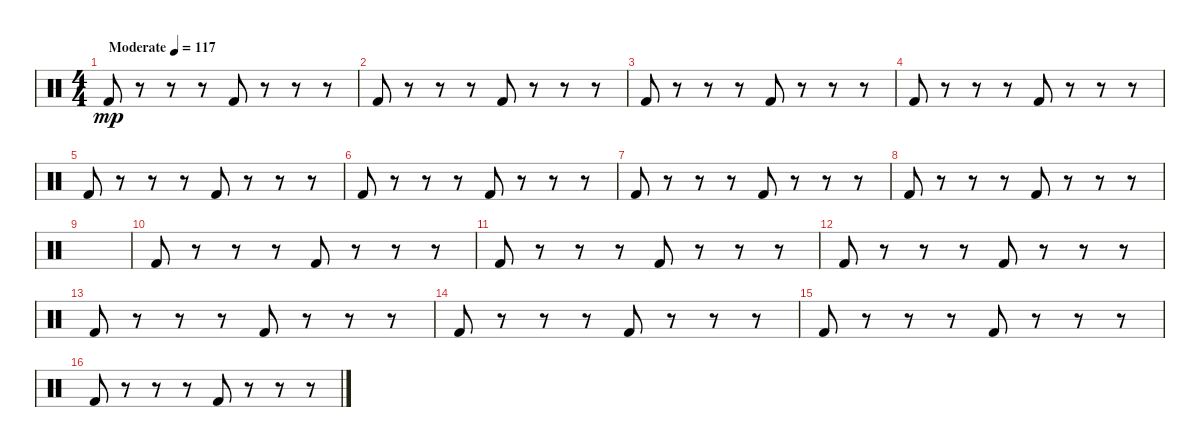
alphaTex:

\track "" {instrument percussion}
\staff {score}
\articulation defaults
\ts (4 4)
\tempo (117 "Moderate")
\clef neutral
\ks c "Kick (hit) 2".8{dy mp}
r.8 r.8 r.8 "Kick (hit) 2".8 r.8 r.8 r.8 |
"Kick (hit) 2".8 r.8 r.8 r.8 "Kick (hit) 2".8 r.8 r.8 r.8 |
"Kick (hit) 2".8 r.8 r.8 r.8 "Kick (hit) 2".8 r.8 r.8 r.8 |
"Kick (hit) 2".8 r.8 r.8 r.8 "Kick (hit) 2".8 r.8 r.8 r.8 |
"Kick (hit) 2".8 r.8 r.8 r.8 "Kick (hit) 2".8 r.8 r.8 r.8 |
"Kick (hit) 2".8 r.8 r.8 r.8 "Kick (hit) 2".8 r.8 r.8 r.8 |
"Kick (hit) 2".8 r.8 r.8 r.8 "Kick (hit) 2".8 r.8 r.8 r.8 |
"Kick (hit) 2".8 r.8 r.8 r.8 "Kick (hit) 2".8 r.8 r.8 r.8 |
|
"Kick (hit) 2".8 r.8 r.8 r.8 "Kick (hit) 2".8 r.8 r.8 r.8 |
"Kick (hit) 2".8 r.8 r.8 r.8 "Kick (hit) 2".8 r.8 r.8 r.8 |
"Kick (hit) 2".8 r.8 r.8 r.8 "Kick (hit) 2".8 r.8 r.8 r.8 |
"Kick (hit) 2".8 r.8 r.8 r.8 "Kick (hit) 2".8 r.8 r.8 r.8 |
"Kick (hit) 2".8 r.8 r.8 r.8 "Kick (hit) 2".8 r.8 r.8 r.8 |
"Kick (hit) 2".8 r.8 r.8 r.8 "Kick (hit) 2".8 r.8 r.8 r.8 |
"Kick (hit) 2".8 r.8 r.8 r.8 "Kick (hit) 2".8 r.8 r.8 r.8
